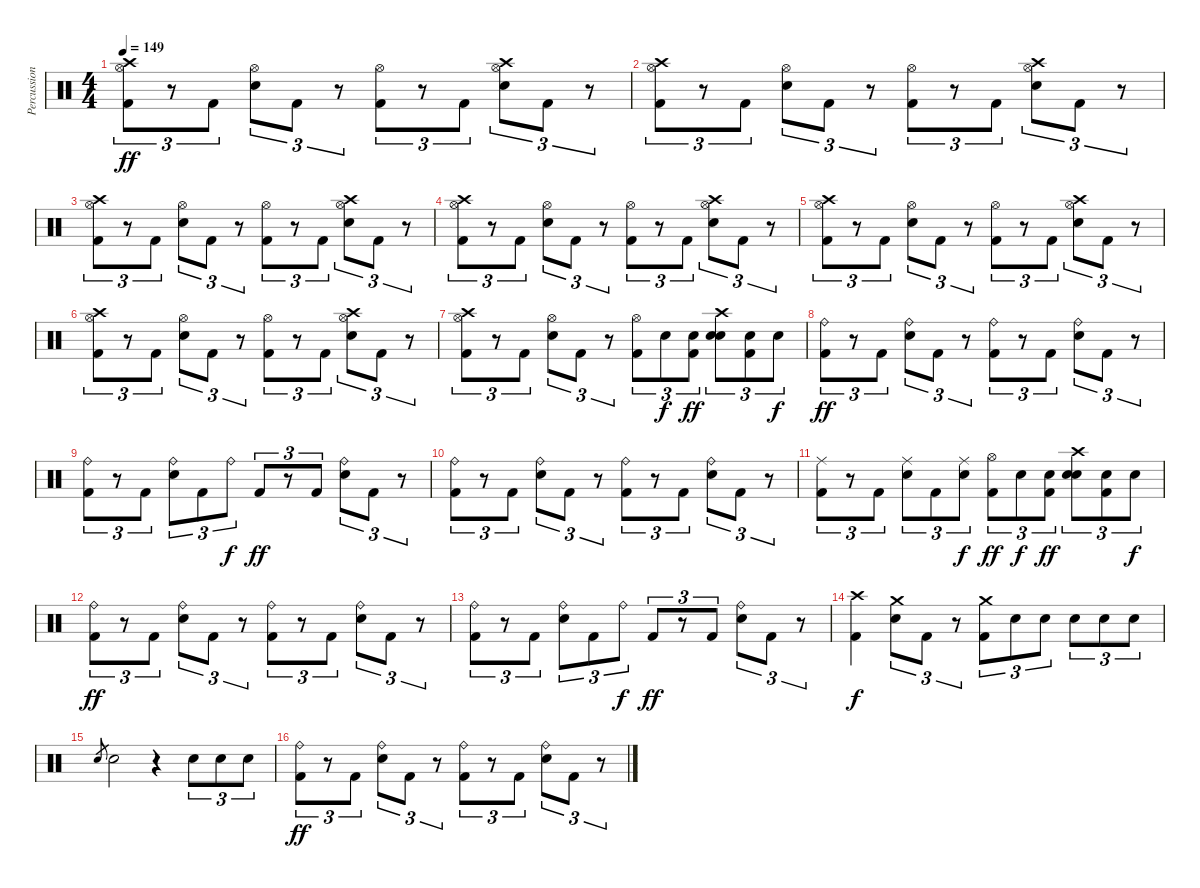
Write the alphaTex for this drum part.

\track ("Percussion" "Percussion") {instrument percussion}
\staff {score}
\articulation defaults
\ts (4 4)
\tempo 149
\clef neutral
\ks c
("Kick (hit) 2" "Hi-Hat (open)" "Crash high (hit)").8{tu (3 2) dy ff} r.8{tu (3 2)} "Kick (hit) 2".8{tu (3 2)} ("Electric Snare (hit)" "Hi-Hat (open)").8{tu (3 2)} "Kick (hit) 2".8{tu (3 2)} r.8{tu (3 2)} ("Kick (hit) 2" "Hi-Hat (open)").8{tu (3 2)} r.8{tu (3 2)} "Kick (hit) 2".8{tu (3 2)} ("Electric Snare (hit)" "Hi-Hat (open)" "Crash high (hit)").8{tu (3 2)} "Kick (hit) 2".8{tu (3 2)} r.8{tu (3 2)} |
("Kick (hit) 2" "Hi-Hat (open)" "Crash high (hit)").8{tu (3 2)} r.8{tu (3 2)} "Kick (hit) 2".8{tu (3 2)} ("Electric Snare (hit)" "Hi-Hat (open)").8{tu (3 2)} "Kick (hit) 2".8{tu (3 2)} r.8{tu (3 2)} ("Kick (hit) 2" "Hi-Hat (open)").8{tu (3 2)} r.8{tu (3 2)} "Kick (hit) 2".8{tu (3 2)} ("Electric Snare (hit)" "Hi-Hat (open)" "Crash high (hit)").8{tu (3 2)} "Kick (hit) 2".8{tu (3 2)} r.8{tu (3 2)} |
("Kick (hit) 2" "Hi-Hat (open)" "Crash high (hit)").8{tu (3 2)} r.8{tu (3 2)} "Kick (hit) 2".8{tu (3 2)} ("Snare (hit) 2" "Hi-Hat (open)").8{tu (3 2)} "Kick (hit) 2".8{tu (3 2)} r.8{tu (3 2)} ("Kick (hit) 2" "Hi-Hat (open)").8{tu (3 2)} r.8{tu (3 2)} "Kick (hit) 2".8{tu (3 2)} ("Snare (hit) 2" "Hi-Hat (open)" "Crash high (hit)").8{tu (3 2)} "Kick (hit) 2".8{tu (3 2)} r.8{tu (3 2)} |
("Kick (hit) 2" "Hi-Hat (open)" "Crash high (hit)").8{tu (3 2)} r.8{tu (3 2)} "Kick (hit) 2".8{tu (3 2)} ("Snare (hit) 2" "Hi-Hat (open)").8{tu (3 2)} "Kick (hit) 2".8{tu (3 2)} r.8{tu (3 2)} ("Kick (hit) 2" "Hi-Hat (open)").8{tu (3 2)} r.8{tu (3 2)} "Kick (hit) 2".8{tu (3 2)} ("Snare (hit) 2" "Hi-Hat (open)" "Crash high (hit)").8{tu (3 2)} "Kick (hit) 2".8{tu (3 2)} r.8{tu (3 2)} |
("Kick (hit) 2" "Hi-Hat (open)" "Crash high (hit)").8{tu (3 2)} r.8{tu (3 2)} "Kick (hit) 2".8{tu (3 2)} ("Snare (hit) 2" "Hi-Hat (open)").8{tu (3 2)} "Kick (hit) 2".8{tu (3 2)} r.8{tu (3 2)} ("Kick (hit) 2" "Hi-Hat (open)").8{tu (3 2)} r.8{tu (3 2)} "Kick (hit) 2".8{tu (3 2)} ("Snare (hit) 2" "Hi-Hat (open)" "Crash high (hit)").8{tu (3 2)} "Kick (hit) 2".8{tu (3 2)} r.8{tu (3 2)} |
("Kick (hit) 2" "Hi-Hat (open)" "Crash high (hit)").8{tu (3 2)} r.8{tu (3 2)} "Kick (hit) 2".8{tu (3 2)} ("Snare (hit) 2" "Hi-Hat (open)").8{tu (3 2)} "Kick (hit) 2".8{tu (3 2)} r.8{tu (3 2)} ("Kick (hit) 2" "Hi-Hat (open)").8{tu (3 2)} r.8{tu (3 2)} "Kick (hit) 2".8{tu (3 2)} ("Snare (hit) 2" "Hi-Hat (open)" "Crash high (hit)").8{tu (3 2)} "Kick (hit) 2".8{tu (3 2)} r.8{tu (3 2)} |
("Kick (hit) 2" "Hi-Hat (open)" "Crash high (hit)").8{tu (3 2)} r.8{tu (3 2)} "Kick (hit) 2".8{tu (3 2)} ("Snare (hit) 2" "Hi-Hat (open)").8{tu (3 2)} "Kick (hit) 2".8{tu (3 2)} r.8{tu (3 2)} ("Kick (hit) 2" "Hi-Hat (open)").8{tu (3 2)} "Electric Snare (hit)".8{tu (3 2) dy f} ("Kick (hit) 2" "Electric Snare (hit)").8{tu (3 2) dy ff} ("Snare (hit) 2" "Electric Snare (hit)" "Crash high (hit)").8{tu (3 2)} ("Kick (hit) 2" "Electric Snare (hit)").8{tu (3 2)} "Electric Snare (hit)".8{tu (3 2) dy f} |
("Kick (hit) 2" "Ride (bell)").8{tu (3 2) dy ff} r.8{tu (3 2)} "Kick (hit) 2".8{tu (3 2)} ("Snare (hit) 2" "Ride (bell)").8{tu (3 2)} "Kick (hit) 2".8{tu (3 2)} r.8{tu (3 2)} ("Kick (hit) 2" "Ride (bell)").8{tu (3 2)} r.8{tu (3 2)} "Kick (hit) 2".8{tu (3 2)} ("Snare (hit) 2" "Ride (bell)").8{tu (3 2)} "Kick (hit) 2".8{tu (3 2)} r.8{tu (3 2)} |
("Kick (hit) 2" "Ride (bell)").8{tu (3 2)} r.8{tu (3 2)} "Kick (hit) 2".8{tu (3 2)} ("Electric Snare (hit)" "Ride (bell)").8{tu (3 2)} "Kick (hit) 2".8{tu (3 2)} "Ride (bell)".8{tu (3 2) dy f} "Kick (hit) 2".8{tu (3 2) dy ff} r.8{tu (3 2)} "Kick (hit) 2".8{tu (3 2)} ("Electric Snare (hit)" "Ride (bell)").8{tu (3 2)} "Kick (hit) 2".8{tu (3 2)} r.8{tu (3 2)} |
("Kick (hit) 2" "Ride (bell)").8{tu (3 2)} r.8{tu (3 2)} "Kick (hit) 2".8{tu (3 2)} ("Snare (hit) 2" "Ride (bell)").8{tu (3 2)} "Kick (hit) 2".8{tu (3 2)} r.8{tu (3 2)} ("Kick (hit) 2" "Ride (bell)").8{tu (3 2)} r.8{tu (3 2)} "Kick (hit) 2".8{tu (3 2)} ("Snare (hit) 2" "Ride (bell)").8{tu (3 2)} "Kick (hit) 2".8{tu (3 2)} r.8{tu (3 2)} |
("Kick (hit) 2" "Ride (middle)").8{tu (3 2)} r.8{tu (3 2)} "Kick (hit) 2".8{tu (3 2)} ("Electric Snare (hit)" "Ride (middle)").8{tu (3 2)} "Kick (hit) 2".8{tu (3 2)} ("Electric Snare (hit)" "Ride (middle)").8{tu (3 2) dy f} ("Kick (hit) 2" "Hi-Hat (open)").8{tu (3 2) dy ff} "Electric Snare (hit)".8{tu (3 2) dy f} ("Kick (hit) 2" "Electric Snare (hit)").8{tu (3 2) dy ff} ("Snare (hit) 2" "Electric Snare (hit)" "Crash high (hit)").8{tu (3 2)} ("Kick (hit) 2" "Electric Snare (hit)").8{tu (3 2)} "Electric Snare (hit)".8{tu (3 2) dy f} |
("Kick (hit) 2" "Ride (bell)").8{tu (3 2) dy ff} r.8{tu (3 2)} "Kick (hit) 2".8{tu (3 2)} ("Snare (hit) 2" "Ride (bell)").8{tu (3 2)} "Kick (hit) 2".8{tu (3 2)} r.8{tu (3 2)} ("Kick (hit) 2" "Ride (bell)").8{tu (3 2)} r.8{tu (3 2)} "Kick (hit) 2".8{tu (3 2)} ("Snare (hit) 2" "Ride (bell)").8{tu (3 2)} "Kick (hit) 2".8{tu (3 2)} r.8{tu (3 2)} |
("Kick (hit) 2" "Ride (bell)").8{tu (3 2)} r.8{tu (3 2)} "Kick (hit) 2".8{tu (3 2)} ("Electric Snare (hit)" "Ride (bell)").8{tu (3 2)} "Kick (hit) 2".8{tu (3 2)} "Ride (bell)".8{tu (3 2) dy f} "Kick (hit) 2".8{tu (3 2) dy ff} r.8{tu (3 2)} "Kick (hit) 2".8{tu (3 2)} ("Electric Snare (hit)" "Ride (bell)").8{tu (3 2)} "Kick (hit) 2".8{tu (3 2)} r.8{tu (3 2)} |
("Kick (hit) 2" "Crash high (hit)").4{dy f} ("Electric Snare (hit)" "Crash medium (hit)").8{tu (3 2)} "Kick (hit) 2".8{tu (3 2)} r.8{tu (3 2)} ("Kick (hit) 2" "Crash medium (hit)").8{tu (3 2)} "Electric Snare (hit)".8{tu (3 2)} "Electric Snare (hit)".8{tu (3 2)} "Electric Snare (hit)".8{tu (3 2)} "Electric Snare (hit)".8{tu (3 2)} "Electric Snare (hit)".8{tu (3 2)} |
"Electric Snare (hit)".8{gr} "Electric Snare (hit)".2 r.4 "Electric Snare (hit)".8{tu (3 2)} "Electric Snare (hit)".8{tu (3 2)} "Electric Snare (hit)".8{tu (3 2)} |
("Kick (hit) 2" "Ride (bell)").8{tu (3 2) dy ff} r.8{tu (3 2)} "Kick (hit) 2".8{tu (3 2)} ("Snare (hit) 2" "Ride (bell)").8{tu (3 2)} "Kick (hit) 2".8{tu (3 2)} r.8{tu (3 2)} ("Kick (hit) 2" "Ride (bell)").8{tu (3 2)} r.8{tu (3 2)} "Kick (hit) 2".8{tu (3 2)} ("Snare (hit) 2" "Ride (bell)").8{tu (3 2)} "Kick (hit) 2".8{tu (3 2)} r.8{tu (3 2)}
